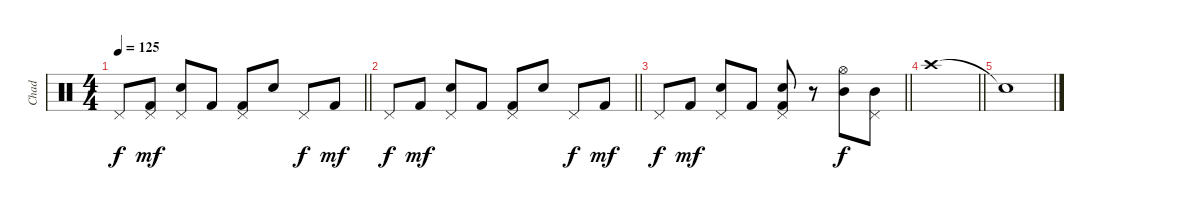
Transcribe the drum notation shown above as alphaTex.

\track ("Chad" "Chad") {instrument percussion}
\staff {score}
\articulation defaults
\ts (4 4)
\tempo 125
\clef neutral
\barLineRight lightlight
\ks c "Pedal Hi-Hat (hit)".8{dy f}
("Kick (hit) 2" "Pedal Hi-Hat (hit)").8{dy mf} ("Electric Snare (hit)" "Pedal Hi-Hat (hit)").8 "Kick (hit) 2".8 ("Kick (hit) 2" "Pedal Hi-Hat (hit)").8 "Electric Snare (hit)".8 "Pedal Hi-Hat (hit)".8{dy f} "Kick (hit) 2".8{dy mf} |
\barLineRight lightlight "Pedal Hi-Hat (hit)".8{dy f} "Kick (hit) 2".8{dy mf}
("Electric Snare (hit)" "Pedal Hi-Hat (hit)").8 "Kick (hit) 2".8 ("Kick (hit) 2" "Pedal Hi-Hat (hit)").8 "Snare (hit) 2".8 "Pedal Hi-Hat (hit)".8{dy f} "Kick (hit) 2".8{dy mf} |
\barLineRight lightlight "Pedal Hi-Hat (hit)".8{dy f} "Kick (hit) 2".8{dy mf}
("Electric Snare (hit)" "Pedal Hi-Hat (hit)").8 "Kick (hit) 2".8 ("Kick (hit) 2" "Electric Snare (hit)" "Pedal Hi-Hat (hit)").8 r.8 ("Mid Tom (hit)" "Hi-Hat (open)").8{dy f} ("Mid Tom (hit)" "Pedal Hi-Hat (hit)").8 |
\barLineRight lightlight "Crash high (hit)".1
|
"Snare (hit)"{t}.1
